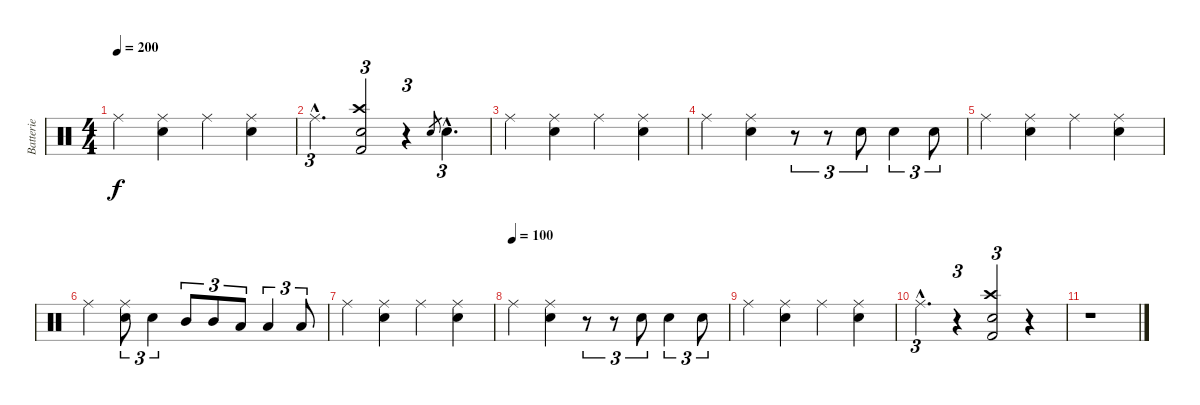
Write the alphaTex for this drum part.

\track ("Batterie" "Batterie") {instrument percussion}
\staff {score}
\articulation defaults
\ts (4 4)
\tempo 200
\clef neutral
\ks c "Ride (middle)".4{dy f}
("Ride (middle)" "Electric Snare (hit)").4 "Ride (middle)".4 ("Ride (middle)" "Electric Snare (hit)").4 |
"Ride (middle)"{hac}.4{d tu (3 2)} ("Crash high (hit)" "Electric Snare (hit)" "Kick (hit) 2").2{tu (3 2)} r.4{tu (3 2)} "Electric Snare (hit)".8{gr} "Electric Snare (hit)"{hac}.4{d tu (3 2)} |
\section ("" "")
"Ride (middle)".4 ("Ride (middle)" "Electric Snare (hit)").4 "Ride (middle)".4 ("Ride (middle)" "Electric Snare (hit)").4 |
"Ride (middle)".4 ("Ride (middle)" "Electric Snare (hit)").4 r.8{tu (3 2)} r.8{tu (3 2)} "Electric Snare (hit)".8{tu (3 2)} "Electric Snare (hit)".4{tu (3 2)} "Electric Snare (hit)".8{tu (3 2)} |
"Ride (middle)".4 ("Ride (middle)" "Electric Snare (hit)").4 "Ride (middle)".4 ("Ride (middle)" "Electric Snare (hit)").4 |
"Ride (middle)".4 ("Ride (middle)" "Electric Snare (hit)").8{tu (3 2)} "Electric Snare (hit)".4{tu (3 2)} "Mid Tom (hit)".8{tu (3 2)} "Mid Tom (hit)".8{tu (3 2)} "Low Floor Tom (hit)".8{tu (3 2)} "Low Floor Tom (hit)".4{tu (3 2)} "Low Floor Tom (hit)".8{tu (3 2)} |
"Ride (middle)".4 ("Ride (middle)" "Electric Snare (hit)").4 "Ride (middle)".4 ("Ride (middle)" "Electric Snare (hit)").4 |
\tempo (100)
"Ride (middle)".4 ("Ride (middle)" "Electric Snare (hit)").4 r.8{tu (3 2)} r.8{tu (3 2)} "Electric Snare (hit)".8{tu (3 2)} "Electric Snare (hit)".4{tu (3 2)} "Electric Snare (hit)".8{tu (3 2)} |
"Ride (middle)".4 ("Ride (middle)" "Electric Snare (hit)").4 "Ride (middle)".4 ("Ride (middle)" "Electric Snare (hit)").4 |
"Ride (middle)"{hac}.4{d tu (3 2)} r.4{tu (3 2)} ("Crash high (hit)" "Electric Snare (hit)" "Kick (hit) 2").2{tu (3 2)} r.4 |
r.1
